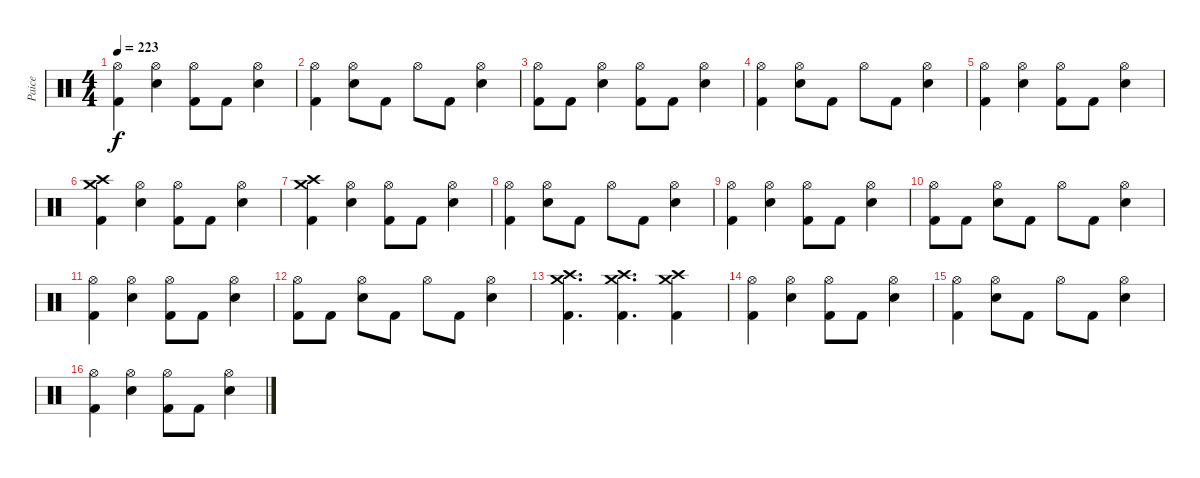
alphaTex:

\track ("Paice" "Paice") {instrument percussion}
\staff {score}
\articulation defaults
\ts (4 4)
\tempo 223
\clef neutral
\ks c
("Hi-Hat (open)" "Kick (hit) 2").4{dy f} ("Hi-Hat (open)" "Electric Snare (hit)").4 ("Hi-Hat (open)" "Kick (hit) 2").8 "Kick (hit) 2".8 ("Hi-Hat (open)" "Electric Snare (hit)").4 |
("Hi-Hat (open)" "Kick (hit) 2").4 ("Hi-Hat (open)" "Electric Snare (hit)").8 "Kick (hit) 2".8 "Hi-Hat (open)".8 "Kick (hit) 2".8 ("Hi-Hat (open)" "Electric Snare (hit)").4 |
("Hi-Hat (open)" "Kick (hit) 2").8 "Kick (hit) 2".8 ("Hi-Hat (open)" "Electric Snare (hit)").4 ("Hi-Hat (open)" "Kick (hit) 2").8 "Kick (hit) 2".8 ("Hi-Hat (open)" "Electric Snare (hit)").4 |
("Hi-Hat (open)" "Kick (hit) 2").4 ("Hi-Hat (open)" "Electric Snare (hit)").8 "Kick (hit) 2".8 "Hi-Hat (open)".8 "Kick (hit) 2".8 ("Hi-Hat (open)" "Electric Snare (hit)").4 |
("Hi-Hat (open)" "Kick (hit) 2").4 ("Hi-Hat (open)" "Electric Snare (hit)").4 ("Hi-Hat (open)" "Kick (hit) 2").8 "Kick (hit) 2".8 ("Hi-Hat (open)" "Electric Snare (hit)").4 |
("Crash high (hit)" "Crash medium (hit)" "Kick (hit) 2").4 ("Hi-Hat (open)" "Electric Snare (hit)").4 ("Hi-Hat (open)" "Kick (hit) 2").8 "Kick (hit) 2".8 ("Hi-Hat (open)" "Electric Snare (hit)").4 |
("Crash high (hit)" "Crash medium (hit)" "Kick (hit) 2").4 ("Hi-Hat (open)" "Electric Snare (hit)").4 ("Hi-Hat (open)" "Kick (hit) 2").8 "Kick (hit) 2".8 ("Hi-Hat (open)" "Electric Snare (hit)").4 |
("Hi-Hat (open)" "Kick (hit) 2").4 ("Hi-Hat (open)" "Electric Snare (hit)").8 "Kick (hit) 2".8 "Hi-Hat (open)".8 "Kick (hit) 2".8 ("Hi-Hat (open)" "Electric Snare (hit)").4 |
("Hi-Hat (open)" "Kick (hit) 2").4 ("Hi-Hat (open)" "Electric Snare (hit)").4 ("Hi-Hat (open)" "Kick (hit) 2").8 "Kick (hit) 2".8 ("Hi-Hat (open)" "Electric Snare (hit)").4 |
("Hi-Hat (open)" "Kick (hit) 2").8 "Kick (hit) 2".8 ("Hi-Hat (open)" "Electric Snare (hit)").8 "Kick (hit) 2".8 "Hi-Hat (open)".8 "Kick (hit) 2".8 ("Hi-Hat (open)" "Electric Snare (hit)").4 |
("Hi-Hat (open)" "Kick (hit) 2").4 ("Hi-Hat (open)" "Electric Snare (hit)").4 ("Hi-Hat (open)" "Kick (hit) 2").8 "Kick (hit) 2".8 ("Hi-Hat (open)" "Electric Snare (hit)").4 |
("Hi-Hat (open)" "Kick (hit) 2").8 "Kick (hit) 2".8 ("Hi-Hat (open)" "Electric Snare (hit)").8 "Kick (hit) 2".8 "Hi-Hat (open)".8 "Kick (hit) 2".8 ("Hi-Hat (open)" "Electric Snare (hit)").4 |
("Crash high (hit)" "Crash medium (hit)" "Kick (hit) 2").4{d} ("Crash high (hit)" "Crash medium (hit)" "Kick (hit) 2").4{d} ("Crash high (hit)" "Crash medium (hit)" "Kick (hit) 2").4 |
("Hi-Hat (open)" "Kick (hit) 2").4 ("Hi-Hat (open)" "Electric Snare (hit)").4 ("Hi-Hat (open)" "Kick (hit) 2").8 "Kick (hit) 2".8 ("Hi-Hat (open)" "Electric Snare (hit)").4 |
("Hi-Hat (open)" "Kick (hit) 2").4 ("Hi-Hat (open)" "Electric Snare (hit)").8 "Kick (hit) 2".8 "Hi-Hat (open)".8 "Kick (hit) 2".8 ("Hi-Hat (open)" "Electric Snare (hit)").4 |
("Hi-Hat (open)" "Kick (hit) 2").4 ("Hi-Hat (open)" "Electric Snare (hit)").4 ("Hi-Hat (open)" "Kick (hit) 2").8 "Kick (hit) 2".8 ("Hi-Hat (open)" "Electric Snare (hit)").4
